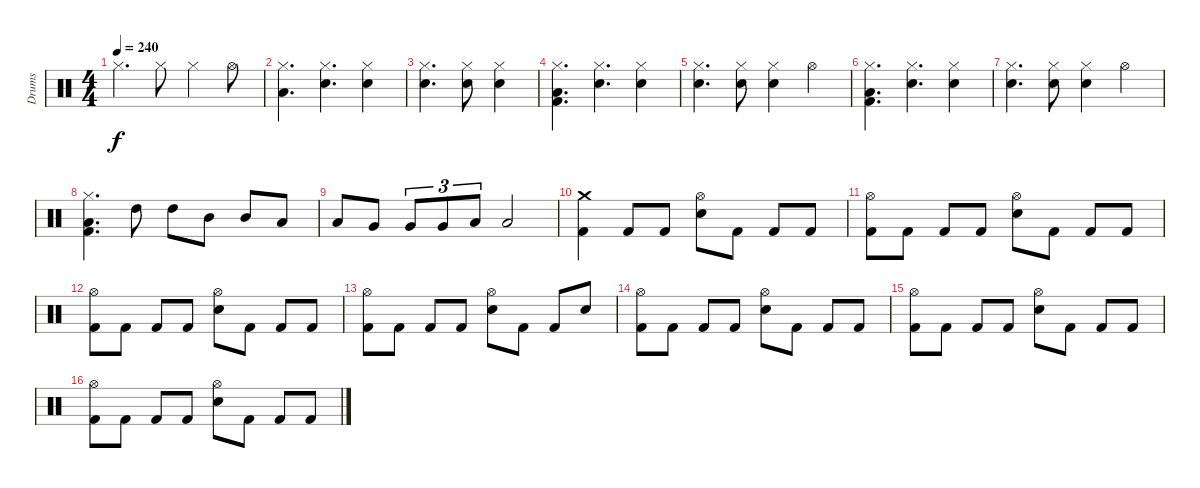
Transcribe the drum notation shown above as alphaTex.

\track ("Drums" "Drums") {instrument percussion}
\staff {score}
\articulation defaults
\ts (4 4)
\tempo 240
\clef neutral
\ks c "Hi-Hat (closed)".4{d dy f} "Hi-Hat (closed)".8 "Hi-Hat (closed)".4 "Hi-Hat (open)".8
|
("Low Tom (hit)" "Hi-Hat (closed)").4{d} ("Hi-Hat (closed)" "Electric Snare (hit)").4{d} ("Hi-Hat (closed)" "Electric Snare (hit)").4 |
("Hi-Hat (closed)" "Electric Snare (hit)").4{d} ("Hi-Hat (closed)" "Electric Snare (hit)").8 ("Hi-Hat (closed)" "Electric Snare (hit)").4 |
("Low Tom (hit)" "Hi-Hat (closed)" "Kick (hit) 2").4{d} ("Hi-Hat (closed)" "Electric Snare (hit)").4{d} ("Hi-Hat (closed)" "Electric Snare (hit)").4 |
("Hi-Hat (closed)" "Electric Snare (hit)").4{d} ("Hi-Hat (closed)" "Electric Snare (hit)").8 ("Hi-Hat (closed)" "Electric Snare (hit)").4 "Hi-Hat (open)".4 |
("Low Tom (hit)" "Hi-Hat (closed)" "Kick (hit) 2").4{d} ("Hi-Hat (closed)" "Electric Snare (hit)").4{d} ("Hi-Hat (closed)" "Electric Snare (hit)").4 |
("Hi-Hat (closed)" "Electric Snare (hit)").4{d} ("Hi-Hat (closed)" "Electric Snare (hit)").8 ("Hi-Hat (closed)" "Electric Snare (hit)").4 "Hi-Hat (open)".4 |
("Low Tom (hit)" "Hi-Hat (closed)" "Kick (hit) 2").4{d} "High Tom (hit)".8 "High Tom (hit)".8 "Mid Tom (hit)".8 "Mid Tom (hit)".8 "Low Tom (hit)".8 |
"Low Tom (hit)".8 "Very Low Tom (hit)".8 "Very Low Tom (hit)".8{tu (3 2)} "Very Low Tom (hit)".8{tu (3 2)} "Low Floor Tom (hit)".8{tu (3 2)} "Low Floor Tom (hit)".2 |
("Crash medium (hit)" "Kick (hit) 2").4 "Kick (hit) 2".8 "Kick (hit) 2".8 ("Hi-Hat (open)" "Electric Snare (hit)").8 "Kick (hit) 2".8 "Kick (hit) 2".8 "Kick (hit) 2".8 |
("Hi-Hat (open)" "Kick (hit) 2").8 "Kick (hit) 2".8 "Kick (hit) 2".8 "Kick (hit) 2".8 ("Hi-Hat (open)" "Electric Snare (hit)").8 "Kick (hit) 2".8 "Kick (hit) 2".8 "Kick (hit) 2".8 |
("Hi-Hat (open)" "Kick (hit) 2").8 "Kick (hit) 2".8 "Kick (hit) 2".8 "Kick (hit) 2".8 ("Hi-Hat (open)" "Electric Snare (hit)").8 "Kick (hit) 2".8 "Kick (hit) 2".8 "Kick (hit) 2".8 |
("Hi-Hat (open)" "Kick (hit) 2").8 "Kick (hit) 2".8 "Kick (hit) 2".8 "Kick (hit) 2".8 ("Hi-Hat (open)" "Electric Snare (hit)").8 "Kick (hit) 2".8 "Kick (hit) 2".8 "Electric Snare (hit)".8 |
("Hi-Hat (open)" "Kick (hit) 2").8 "Kick (hit) 2".8 "Kick (hit) 2".8 "Kick (hit) 2".8 ("Hi-Hat (open)" "Electric Snare (hit)").8 "Kick (hit) 2".8 "Kick (hit) 2".8 "Kick (hit) 2".8 |
("Hi-Hat (open)" "Kick (hit) 2").8 "Kick (hit) 2".8 "Kick (hit) 2".8 "Kick (hit) 2".8 ("Hi-Hat (open)" "Electric Snare (hit)").8 "Kick (hit) 2".8 "Kick (hit) 2".8 "Kick (hit) 2".8 |
("Hi-Hat (open)" "Kick (hit) 2").8 "Kick (hit) 2".8 "Kick (hit) 2".8 "Kick (hit) 2".8 ("Hi-Hat (open)" "Electric Snare (hit)").8 "Kick (hit) 2".8 "Kick (hit) 2".8 "Kick (hit) 2".8
